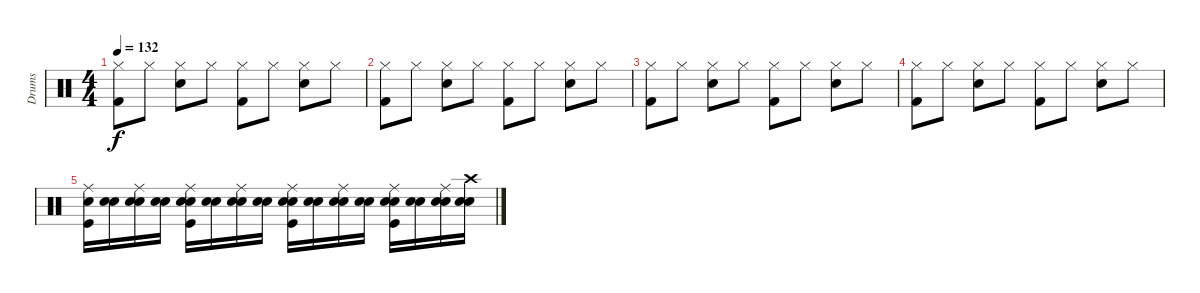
\track ("Drums" "Drums") {instrument percussion}
\staff {score}
\articulation defaults
\ts (4 4)
\tempo 132
\clef neutral
\ks c
("Hi-Hat (closed)" "Kick (hit) 2").8{dy f} "Hi-Hat (closed)".8 ("Hi-Hat (closed)" "Snare (hit) 2").8 "Hi-Hat (closed)".8 ("Hi-Hat (closed)" "Kick (hit) 2").8 "Hi-Hat (closed)".8 ("Hi-Hat (closed)" "Snare (hit) 2").8 "Hi-Hat (closed)".8 |
("Hi-Hat (closed)" "Kick (hit) 2").8 "Hi-Hat (closed)".8 ("Hi-Hat (closed)" "Snare (hit) 2").8 "Hi-Hat (closed)".8 ("Hi-Hat (closed)" "Kick (hit) 2").8 "Hi-Hat (closed)".8 ("Hi-Hat (closed)" "Snare (hit) 2").8 "Hi-Hat (closed)".8 |
("Hi-Hat (closed)" "Kick (hit) 2").8 "Hi-Hat (closed)".8 ("Hi-Hat (closed)" "Snare (hit) 2").8 "Hi-Hat (closed)".8 ("Hi-Hat (closed)" "Kick (hit) 2").8 "Hi-Hat (closed)".8 ("Hi-Hat (closed)" "Snare (hit) 2").8 "Hi-Hat (closed)".8 |
("Hi-Hat (closed)" "Kick (hit) 2").8 "Hi-Hat (closed)".8 ("Hi-Hat (closed)" "Snare (hit) 2").8 "Hi-Hat (closed)".8 ("Hi-Hat (closed)" "Kick (hit) 2").8 "Hi-Hat (closed)".8 ("Hi-Hat (closed)" "Snare (hit) 2").8 "Hi-Hat (closed)".8 |
("Snare (hit) 2" "Kick (hit)" "Ride (middle)").16 ("Snare (hit)" "Snare (hit) 2").16 ("Snare (hit)" "Snare (hit) 2" "Ride (middle)").16 ("Snare (hit)" "Snare (hit) 2").16 ("Snare (hit)" "Snare (hit) 2" "Kick (hit)" "Ride (middle)").16 ("Snare (hit)" "Snare (hit) 2").16 ("Snare (hit)" "Snare (hit) 2" "Ride (middle)").16 ("Snare (hit)" "Snare (hit) 2").16 ("Snare (hit)" "Snare (hit) 2" "Kick (hit)" "Ride (middle)").16 ("Snare (hit)" "Snare (hit) 2").16 ("Snare (hit)" "Snare (hit) 2" "Ride (middle)").16 ("Snare (hit)" "Snare (hit) 2").16 ("Snare (hit)" "Snare (hit) 2" "Kick (hit)" "Ride (middle)").16 ("Snare (hit)" "Snare (hit) 2").16 ("Snare (hit)" "Snare (hit) 2" "Ride (middle)").16 ("Snare (hit)" "Snare (hit) 2" "Crash high (hit)").16
